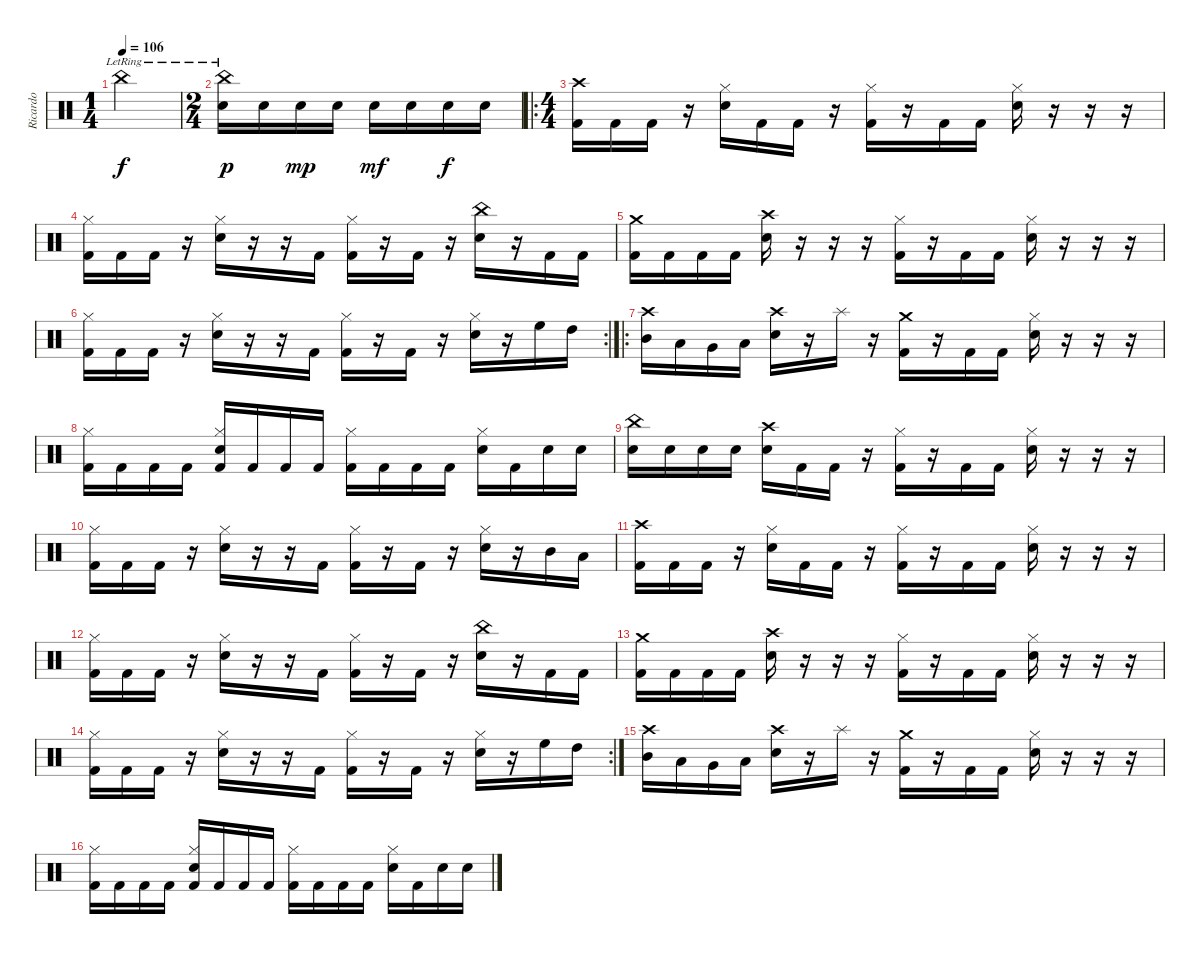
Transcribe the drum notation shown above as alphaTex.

\track ("Ricardo" "Ricardo") {instrument percussion}
\staff {score}
\articulation defaults
\ts (1 4)
\tempo 106
\clef neutral
\ks c "China (hit)"{lr}.4{dy f}
|
\ts (2 4)
("China (hit)"{lr} "Snare (hit) 2").16{dy p} "Snare (hit) 2".16 "Snare (hit) 2".16{dy mp} "Snare (hit) 2".16 "Snare (hit) 2".16{dy mf} "Snare (hit) 2".16 "Snare (hit) 2".16{dy f} "Snare (hit) 2".16 |
\ro
\ts (4 4)
("Crash high (hit)" "Kick (hit) 2").16 "Kick (hit) 2".16 "Kick (hit) 2".16 r.16 ("Hi-Hat (closed)" "Electric Snare (hit)").16 "Kick (hit) 2".16 "Kick (hit) 2".16 r.16 ("Hi-Hat (closed)" "Kick (hit) 2").16 r.16 "Kick (hit) 2".16 "Kick (hit) 2".16 ("Hi-Hat (closed)" "Electric Snare (hit)").16 r.16 r.16 r.16 |
("Hi-Hat (closed)" "Kick (hit) 2").16 "Kick (hit) 2".16 "Kick (hit) 2".16 r.16 ("Hi-Hat (closed)" "Electric Snare (hit)").16 r.16 r.16 "Kick (hit) 2".16 ("Hi-Hat (closed)" "Kick (hit) 2").16 r.16 "Kick (hit) 2".16 r.16 ("China (hit)" "Electric Snare (hit)").16 r.16 "Kick (hit) 2".16 "Kick (hit) 2".16 |
("Crash medium (hit)" "Kick (hit) 2").16 "Kick (hit) 2".16 "Kick (hit) 2".16 "Kick (hit) 2".16 ("Crash high (hit)" "Electric Snare (hit)").16 r.16 r.16 r.16 ("Hi-Hat (closed)" "Kick (hit) 2").16 r.16 "Kick (hit) 2".16 "Kick (hit) 2".16 ("Hi-Hat (closed)" "Electric Snare (hit)").16 r.16 r.16 r.16 |
\rc 2
("Hi-Hat (closed)" "Kick (hit) 2").16 "Kick (hit) 2".16 "Kick (hit) 2".16 r.16 ("Hi-Hat (closed)" "Electric Snare (hit)").16 r.16 r.16 "Kick (hit) 2".16 ("Hi-Hat (closed)" "Kick (hit) 2").16 r.16 "Kick (hit) 2".16 r.16 ("Hi-Hat (closed)" "Electric Snare (hit)").16 r.16 "High Floor Tom (hit)".16 "High Tom (hit)".16 |
\ro
("Crash high (hit)" "Mid Tom (hit)").16 "Low Tom (hit)".16 "Very Low Tom (hit)".16 "Low Floor Tom (hit)".16 ("Crash high (hit)" "Electric Snare (hit)").16 r.16 "Splash (hit)".16 r.16 ("Crash medium (hit)" "Kick (hit) 2").16 r.16 "Kick (hit) 2".16 "Kick (hit) 2".16 ("Hi-Hat (closed)" "Electric Snare (hit)").16 r.16 r.16 r.16 |
("Hi-Hat (closed)" "Kick (hit) 2").16 "Kick (hit) 2".16 "Kick (hit) 2".16 "Kick (hit) 2".16 ("Hi-Hat (closed)" "Electric Snare (hit)" "Kick (hit) 2").16 "Kick (hit) 2".16 "Kick (hit) 2".16 "Kick (hit) 2".16 ("Hi-Hat (closed)" "Kick (hit) 2").16 "Kick (hit) 2".16 "Kick (hit) 2".16 "Kick (hit) 2".16 ("Hi-Hat (closed)" "Electric Snare (hit)").16 "Kick (hit) 2".16 "Snare (hit) 2".16 "Snare (hit) 2".16 |
("China (hit)" "Electric Snare (hit)").16 "Electric Snare (hit)".16 "Electric Snare (hit)".16 "Electric Snare (hit)".16 ("Crash high (hit)" "Electric Snare (hit)").16 "Kick (hit) 2".16 "Kick (hit) 2".16 r.16 ("Hi-Hat (closed)" "Kick (hit) 2").16 r.16 "Kick (hit) 2".16 "Kick (hit) 2".16 ("Hi-Hat (closed)" "Electric Snare (hit)").16 r.16 r.16 r.16 |
("Hi-Hat (closed)" "Kick (hit) 2").16 "Kick (hit) 2".16 "Kick (hit) 2".16 r.16 ("Hi-Hat (closed)" "Electric Snare (hit)").16 r.16 r.16 "Kick (hit) 2".16 ("Hi-Hat (closed)" "Kick (hit) 2").16 r.16 "Kick (hit) 2".16 r.16 ("Hi-Hat (closed)" "Electric Snare (hit)").16 r.16 "Mid Tom (hit)".16 "Low Tom (hit)".16 |
("Crash high (hit)" "Kick (hit) 2").16 "Kick (hit) 2".16 "Kick (hit) 2".16 r.16 ("Hi-Hat (closed)" "Electric Snare (hit)").16 "Kick (hit) 2".16 "Kick (hit) 2".16 r.16 ("Hi-Hat (closed)" "Kick (hit) 2").16 r.16 "Kick (hit) 2".16 "Kick (hit) 2".16 ("Hi-Hat (closed)" "Electric Snare (hit)").16 r.16 r.16 r.16 |
("Hi-Hat (closed)" "Kick (hit) 2").16 "Kick (hit) 2".16 "Kick (hit) 2".16 r.16 ("Hi-Hat (closed)" "Electric Snare (hit)").16 r.16 r.16 "Kick (hit) 2".16 ("Hi-Hat (closed)" "Kick (hit) 2").16 r.16 "Kick (hit) 2".16 r.16 ("China (hit)" "Electric Snare (hit)").16 r.16 "Kick (hit) 2".16 "Kick (hit) 2".16 |
("Crash medium (hit)" "Kick (hit) 2").16 "Kick (hit) 2".16 "Kick (hit) 2".16 "Kick (hit) 2".16 ("Crash high (hit)" "Electric Snare (hit)").16 r.16 r.16 r.16 ("Hi-Hat (closed)" "Kick (hit) 2").16 r.16 "Kick (hit) 2".16 "Kick (hit) 2".16 ("Hi-Hat (closed)" "Electric Snare (hit)").16 r.16 r.16 r.16 |
\rc 2
("Hi-Hat (closed)" "Kick (hit) 2").16 "Kick (hit) 2".16 "Kick (hit) 2".16 r.16 ("Hi-Hat (closed)" "Electric Snare (hit)").16 r.16 r.16 "Kick (hit) 2".16 ("Hi-Hat (closed)" "Kick (hit) 2").16 r.16 "Kick (hit) 2".16 r.16 ("Hi-Hat (closed)" "Electric Snare (hit)").16 r.16 "High Floor Tom (hit)".16 "High Tom (hit)".16 |
("Crash high (hit)" "Mid Tom (hit)").16 "Low Tom (hit)".16 "Very Low Tom (hit)".16 "Low Floor Tom (hit)".16 ("Crash high (hit)" "Electric Snare (hit)").16 r.16 "Splash (hit)".16 r.16 ("Crash medium (hit)" "Kick (hit) 2").16 r.16 "Kick (hit) 2".16 "Kick (hit) 2".16 ("Hi-Hat (closed)" "Electric Snare (hit)").16 r.16 r.16 r.16 |
("Hi-Hat (closed)" "Kick (hit) 2").16 "Kick (hit) 2".16 "Kick (hit) 2".16 "Kick (hit) 2".16 ("Hi-Hat (closed)" "Electric Snare (hit)" "Kick (hit) 2").16 "Kick (hit) 2".16 "Kick (hit) 2".16 "Kick (hit) 2".16 ("Hi-Hat (closed)" "Kick (hit) 2").16 "Kick (hit) 2".16 "Kick (hit) 2".16 "Kick (hit) 2".16 ("Hi-Hat (closed)" "Electric Snare (hit)").16 "Kick (hit) 2".16 "Snare (hit) 2".16 "Snare (hit) 2".16
